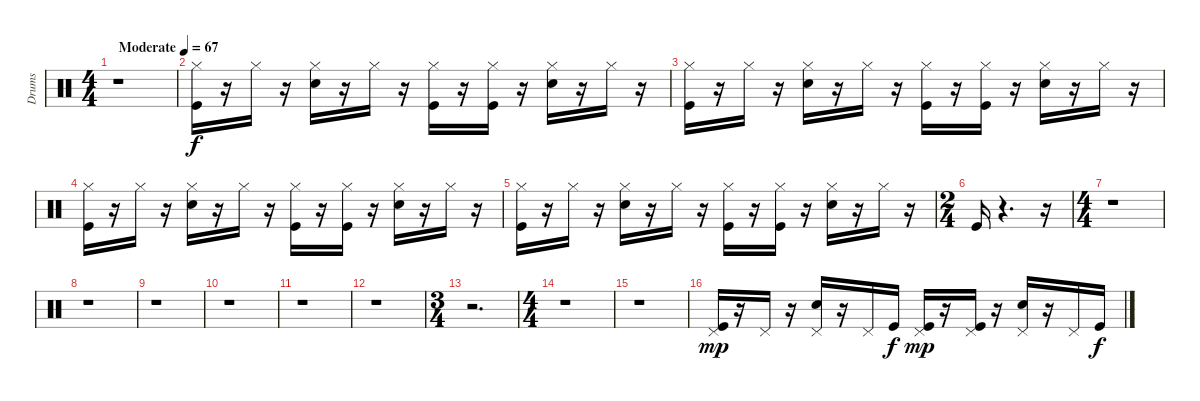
\track ("Drums" "Drums") {instrument percussion}
\staff {score}
\articulation defaults
\ts (4 4)
\tempo (67 "Moderate")
\clef neutral
\ks c
r.1{dy f} |
("Kick (hit)" "Hi-Hat (closed)").16 r.16 "Hi-Hat (closed)".16 r.16 ("Hi-Hat (closed)" "Snare (hit) 2").16 r.16 "Hi-Hat (closed)".16 r.16 ("Kick (hit)" "Hi-Hat (closed)").16 r.16 ("Kick (hit)" "Hi-Hat (closed)").16 r.16 ("Hi-Hat (closed)" "Snare (hit) 2").16 r.16 "Hi-Hat (closed)".16 r.16 |
("Kick (hit)" "Hi-Hat (closed)").16 r.16 "Hi-Hat (closed)".16 r.16 ("Hi-Hat (closed)" "Snare (hit) 2").16 r.16 "Hi-Hat (closed)".16 r.16 ("Kick (hit)" "Hi-Hat (closed)").16 r.16 ("Kick (hit)" "Hi-Hat (closed)").16 r.16 ("Hi-Hat (closed)" "Snare (hit) 2").16 r.16 "Hi-Hat (closed)".16 r.16 |
("Kick (hit)" "Hi-Hat (closed)").16 r.16 "Hi-Hat (closed)".16 r.16 ("Hi-Hat (closed)" "Snare (hit) 2").16 r.16 "Hi-Hat (closed)".16 r.16 ("Kick (hit)" "Hi-Hat (closed)").16 r.16 ("Kick (hit)" "Hi-Hat (closed)").16 r.16 ("Hi-Hat (closed)" "Snare (hit) 2").16 r.16 "Hi-Hat (closed)".16 r.16 |
("Kick (hit)" "Hi-Hat (closed)").16 r.16 "Hi-Hat (closed)".16 r.16 ("Hi-Hat (closed)" "Snare (hit) 2").16 r.16 "Hi-Hat (closed)".16 r.16 ("Kick (hit)" "Hi-Hat (closed)").16 r.16 ("Kick (hit)" "Hi-Hat (closed)").16 r.16 ("Hi-Hat (closed)" "Snare (hit) 2").16 r.16 "Hi-Hat (closed)".16 r.16 |
\ts (2 4)
"Kick (hit)".16 r.4{d} r.16 |
\ts (4 4)
r.1 |
r.1 |
r.1 |
r.1 |
r.1 |
r.1 |
\ts (3 4)
r.2{d} |
\ts (4 4)
r.1 |
r.1 |
("Kick (hit)" "Pedal Hi-Hat (hit)").16{dy mp} r.16 "Pedal Hi-Hat (hit)".16 r.16 ("Pedal Hi-Hat (hit)" "Snare (hit) 2").16 r.16 "Pedal Hi-Hat (hit)".16 "Kick (hit)".16{dy f} ("Kick (hit)" "Pedal Hi-Hat (hit)").16{dy mp} r.16 ("Kick (hit)" "Pedal Hi-Hat (hit)").16 r.16 ("Pedal Hi-Hat (hit)" "Snare (hit) 2").16 r.16 "Pedal Hi-Hat (hit)".16 "Kick (hit)".16{dy f}
